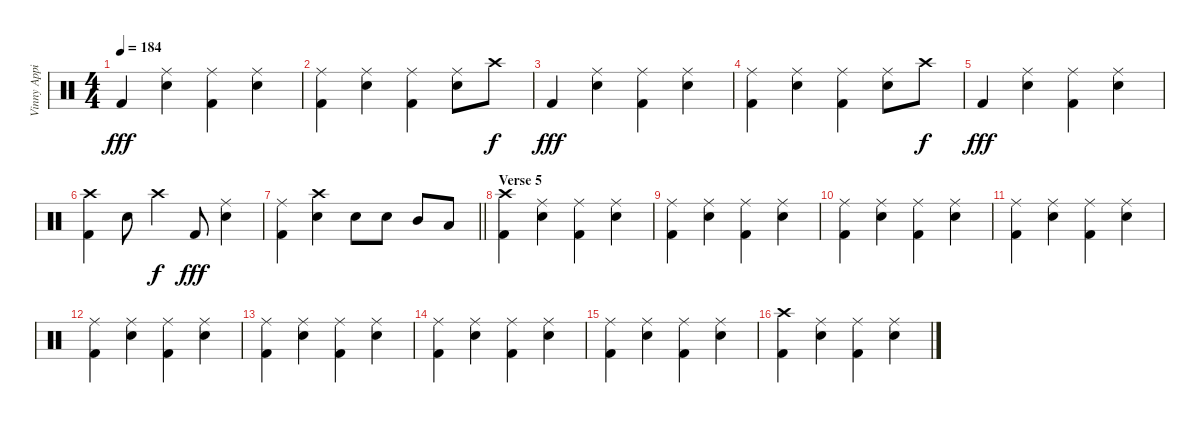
\track ("Vinny Appice" "Vinny Appi") {instrument percussion}
\staff {score}
\articulation defaults
\ts (4 4)
\tempo 184
\clef neutral
\ks c "Kick (hit) 2".4{dy fff}
("Ride (middle)" "Snare (hit) 2").4 ("Ride (middle)" "Kick (hit) 2").4 ("Ride (middle)" "Snare (hit) 2").4 |
("Ride (middle)" "Kick (hit) 2").4 ("Ride (middle)" "Snare (hit) 2").4 ("Ride (middle)" "Kick (hit) 2").4 ("Ride (middle)" "Snare (hit) 2").8 "Crash high (hit)".8{dy f} |
"Kick (hit) 2".4{dy fff} ("Ride (middle)" "Snare (hit) 2").4 ("Ride (middle)" "Kick (hit) 2").4 ("Ride (middle)" "Snare (hit) 2").4 |
("Ride (middle)" "Kick (hit) 2").4 ("Ride (middle)" "Snare (hit) 2").4 ("Ride (middle)" "Kick (hit) 2").4 ("Ride (middle)" "Snare (hit) 2").8 "Crash high (hit)".8{dy f} |
"Kick (hit) 2".4{dy fff} ("Ride (middle)" "Snare (hit) 2").4 ("Ride (middle)" "Kick (hit) 2").4 ("Ride (middle)" "Snare (hit) 2").4 |
("Crash high (hit)" "Kick (hit) 2").4 "Snare (hit) 2".8 "Crash high (hit)".4{dy f} "Kick (hit) 2".8{dy fff} ("Ride (middle)" "Snare (hit) 2").4 |
\barLineRight lightlight
("Ride (middle)" "Kick (hit) 2").4 ("Crash high (hit)" "Snare (hit) 2").4 "Snare (hit) 2".8 "Snare (hit) 2".8 "Mid Tom (hit)".8 "Low Tom (hit)".8 |
\section ("" "Verse 5")
("Crash high (hit)" "Kick (hit) 2").4 ("Ride (middle)" "Snare (hit) 2").4 ("Ride (middle)" "Kick (hit) 2").4 ("Ride (middle)" "Snare (hit) 2").4 |
("Ride (middle)" "Kick (hit) 2").4 ("Ride (middle)" "Snare (hit) 2").4 ("Ride (middle)" "Kick (hit) 2").4 ("Ride (middle)" "Snare (hit) 2").4 |
("Ride (middle)" "Kick (hit) 2").4 ("Ride (middle)" "Snare (hit) 2").4 ("Ride (middle)" "Kick (hit) 2").4 ("Ride (middle)" "Snare (hit) 2").4 |
("Ride (middle)" "Kick (hit) 2").4 ("Ride (middle)" "Snare (hit) 2").4 ("Ride (middle)" "Kick (hit) 2").4 ("Ride (middle)" "Snare (hit) 2").4 |
("Ride (middle)" "Kick (hit) 2").4 ("Ride (middle)" "Snare (hit) 2").4 ("Ride (middle)" "Kick (hit) 2").4 ("Ride (middle)" "Snare (hit) 2").4 |
("Ride (middle)" "Kick (hit) 2").4 ("Ride (middle)" "Snare (hit) 2").4 ("Ride (middle)" "Kick (hit) 2").4 ("Ride (middle)" "Snare (hit) 2").4 |
("Ride (middle)" "Kick (hit) 2").4 ("Ride (middle)" "Snare (hit) 2").4 ("Ride (middle)" "Kick (hit) 2").4 ("Ride (middle)" "Snare (hit) 2").4 |
("Ride (middle)" "Kick (hit) 2").4 ("Ride (middle)" "Snare (hit) 2").4 ("Ride (middle)" "Kick (hit) 2").4 ("Ride (middle)" "Snare (hit) 2").4 |
("Crash high (hit)" "Kick (hit) 2").4 ("Ride (middle)" "Snare (hit) 2").4 ("Ride (middle)" "Kick (hit) 2").4 ("Ride (middle)" "Snare (hit) 2").4
